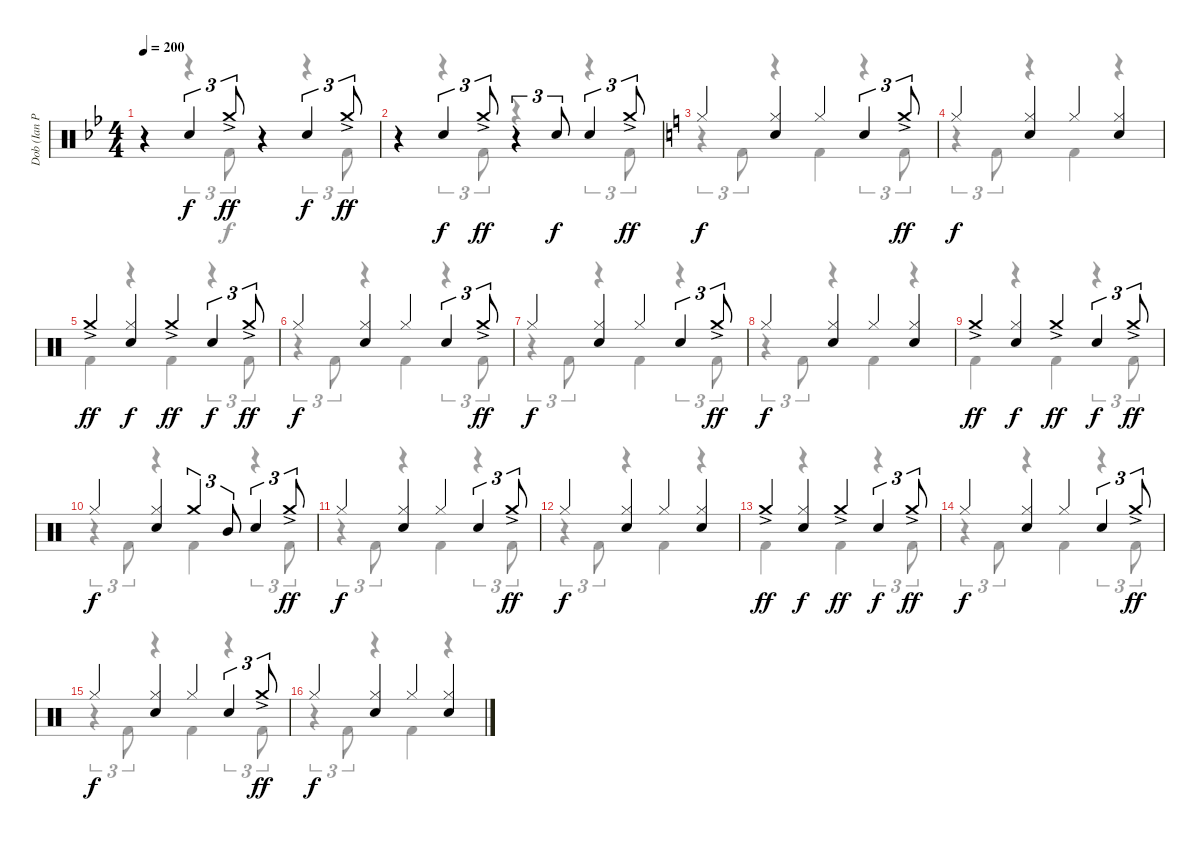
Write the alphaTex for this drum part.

\track ("Dob (Ian Paice)" "Dob (Ian P") {instrument percussion}
\staff {score}
\articulation defaults
\voice
\ts (4 4)
\tempo 200
\clef neutral
\ks bb
r.4{dy ff} "Electric Snare (hit)".4{tu (3 2) dy f} "Crash medium (hit)"{ac}.8{tu (3 2) dy ff} r.4 "Electric Snare (hit)".4{tu (3 2) dy f} "Crash medium (hit)"{ac}.8{tu (3 2) dy ff} |
r.4 "Electric Snare (hit)".4{tu (3 2) dy f} "Crash medium (hit)"{ac}.8{tu (3 2) dy ff} r.4{tu (3 2)} "Electric Snare (hit)".8{tu (3 2) dy f} "Electric Snare (hit)".4{tu (3 2)} "Crash medium (hit)"{ac}.8{tu (3 2) dy ff} |
\ks c "Hi-Hat (closed)".4{dy f}
("Hi-Hat (closed)" "Electric Snare (hit)").4 "Hi-Hat (closed)".4 "Electric Snare (hit)".4{tu (3 2)} "Crash medium (hit)"{ac}.8{tu (3 2) dy ff} |
"Hi-Hat (closed)".4{dy f} ("Hi-Hat (closed)" "Electric Snare (hit)").4 "Hi-Hat (closed)".4 ("Hi-Hat (closed)" "Electric Snare (hit)").4 |
"Crash medium (hit)"{ac}.4{dy ff} ("Hi-Hat (closed)" "Electric Snare (hit)").4{dy f} "Crash medium (hit)"{ac}.4{dy ff} "Electric Snare (hit)".4{tu (3 2) dy f} "Crash medium (hit)"{ac}.8{tu (3 2) dy ff} |
"Hi-Hat (closed)".4{dy f} ("Hi-Hat (closed)" "Electric Snare (hit)").4 "Hi-Hat (closed)".4 "Electric Snare (hit)".4{tu (3 2)} "Crash medium (hit)"{ac}.8{tu (3 2) dy ff} |
"Hi-Hat (closed)".4{dy f} ("Hi-Hat (closed)" "Electric Snare (hit)").4 "Hi-Hat (closed)".4 "Electric Snare (hit)".4{tu (3 2)} "Crash medium (hit)"{ac}.8{tu (3 2) dy ff} |
"Hi-Hat (closed)".4{dy f} ("Hi-Hat (closed)" "Electric Snare (hit)").4 "Hi-Hat (closed)".4 ("Hi-Hat (closed)" "Electric Snare (hit)").4 |
"Crash medium (hit)"{ac}.4{dy ff} ("Hi-Hat (closed)" "Electric Snare (hit)").4{dy f} "Crash medium (hit)"{ac}.4{dy ff} "Electric Snare (hit)".4{tu (3 2) dy f} "Crash medium (hit)"{ac}.8{tu (3 2) dy ff} |
"Hi-Hat (closed)".4{dy f} ("Hi-Hat (closed)" "Electric Snare (hit)").4 "Crash medium (hit)".4{tu (3 2)} "Mid Tom (hit)".8{tu (3 2)} "Electric Snare (hit)".4{tu (3 2)} "Crash medium (hit)"{ac}.8{tu (3 2) dy ff} |
"Hi-Hat (closed)".4{dy f} ("Hi-Hat (closed)" "Electric Snare (hit)").4 "Hi-Hat (closed)".4 "Electric Snare (hit)".4{tu (3 2)} "Crash medium (hit)"{ac}.8{tu (3 2) dy ff} |
"Hi-Hat (closed)".4{dy f} ("Hi-Hat (closed)" "Electric Snare (hit)").4 "Hi-Hat (closed)".4 ("Hi-Hat (closed)" "Electric Snare (hit)").4 |
"Crash medium (hit)"{ac}.4{dy ff} ("Hi-Hat (closed)" "Electric Snare (hit)").4{dy f} "Crash medium (hit)"{ac}.4{dy ff} "Electric Snare (hit)".4{tu (3 2) dy f} "Crash medium (hit)"{ac}.8{tu (3 2) dy ff} |
"Hi-Hat (closed)".4{dy f} ("Hi-Hat (closed)" "Electric Snare (hit)").4 "Hi-Hat (closed)".4 "Electric Snare (hit)".4{tu (3 2)} "Crash medium (hit)"{ac}.8{tu (3 2) dy ff} |
"Hi-Hat (closed)".4{dy f} ("Hi-Hat (closed)" "Electric Snare (hit)").4 "Hi-Hat (closed)".4 "Electric Snare (hit)".4{tu (3 2)} "Crash medium (hit)"{ac}.8{tu (3 2) dy ff} |
"Hi-Hat (closed)".4{dy f} ("Hi-Hat (closed)" "Electric Snare (hit)").4 "Hi-Hat (closed)".4 ("Hi-Hat (closed)" "Electric Snare (hit)").4
\voice
\clef neutral
\ottava regular
\simile none
\ks bb
r.4{dy f} r.4{tu (3 2)} "Kick (hit) 2".8{tu (3 2)} r.4 r.4{tu (3 2)} "Kick (hit) 2".8{tu (3 2)} |
r.4 r.4{tu (3 2)} "Kick (hit) 2".8{tu (3 2)} r.4 r.4{tu (3 2)} "Kick (hit) 2".8{tu (3 2)} |
\ks c
r.4{tu (3 2)} "Kick (hit) 2".8{tu (3 2)} r.4 "Kick (hit) 2".4 r.4{tu (3 2)} "Kick (hit) 2".8{tu (3 2)} |
r.4{tu (3 2)} "Kick (hit) 2".8{tu (3 2)} r.4 "Kick (hit) 2".4 r.4 |
"Kick (hit) 2".4 r.4 "Kick (hit) 2".4 r.4{tu (3 2)} "Kick (hit) 2".8{tu (3 2)} |
r.4{tu (3 2)} "Kick (hit) 2".8{tu (3 2)} r.4 "Kick (hit) 2".4 r.4{tu (3 2)} "Kick (hit) 2".8{tu (3 2)} |
r.4{tu (3 2)} "Kick (hit) 2".8{tu (3 2)} r.4 "Kick (hit) 2".4 r.4{tu (3 2)} "Kick (hit) 2".8{tu (3 2)} |
r.4{tu (3 2)} "Kick (hit) 2".8{tu (3 2)} r.4 "Kick (hit) 2".4 r.4 |
"Kick (hit) 2".4 r.4 "Kick (hit) 2".4 r.4{tu (3 2)} "Kick (hit) 2".8{tu (3 2)} |
r.4{tu (3 2)} "Kick (hit) 2".8{tu (3 2)} r.4 "Kick (hit) 2".4 r.4{tu (3 2)} "Kick (hit) 2".8{tu (3 2)} |
r.4{tu (3 2)} "Kick (hit) 2".8{tu (3 2)} r.4 "Kick (hit) 2".4 r.4{tu (3 2)} "Kick (hit) 2".8{tu (3 2)} |
r.4{tu (3 2)} "Kick (hit) 2".8{tu (3 2)} r.4 "Kick (hit) 2".4 r.4 |
"Kick (hit) 2".4 r.4 "Kick (hit) 2".4 r.4{tu (3 2)} "Kick (hit) 2".8{tu (3 2)} |
r.4{tu (3 2)} "Kick (hit) 2".8{tu (3 2)} r.4 "Kick (hit) 2".4 r.4{tu (3 2)} "Kick (hit) 2".8{tu (3 2)} |
r.4{tu (3 2)} "Kick (hit) 2".8{tu (3 2)} r.4 "Kick (hit) 2".4 r.4{tu (3 2)} "Kick (hit) 2".8{tu (3 2)} |
r.4{tu (3 2)} "Kick (hit) 2".8{tu (3 2)} r.4 "Kick (hit) 2".4 r.4
